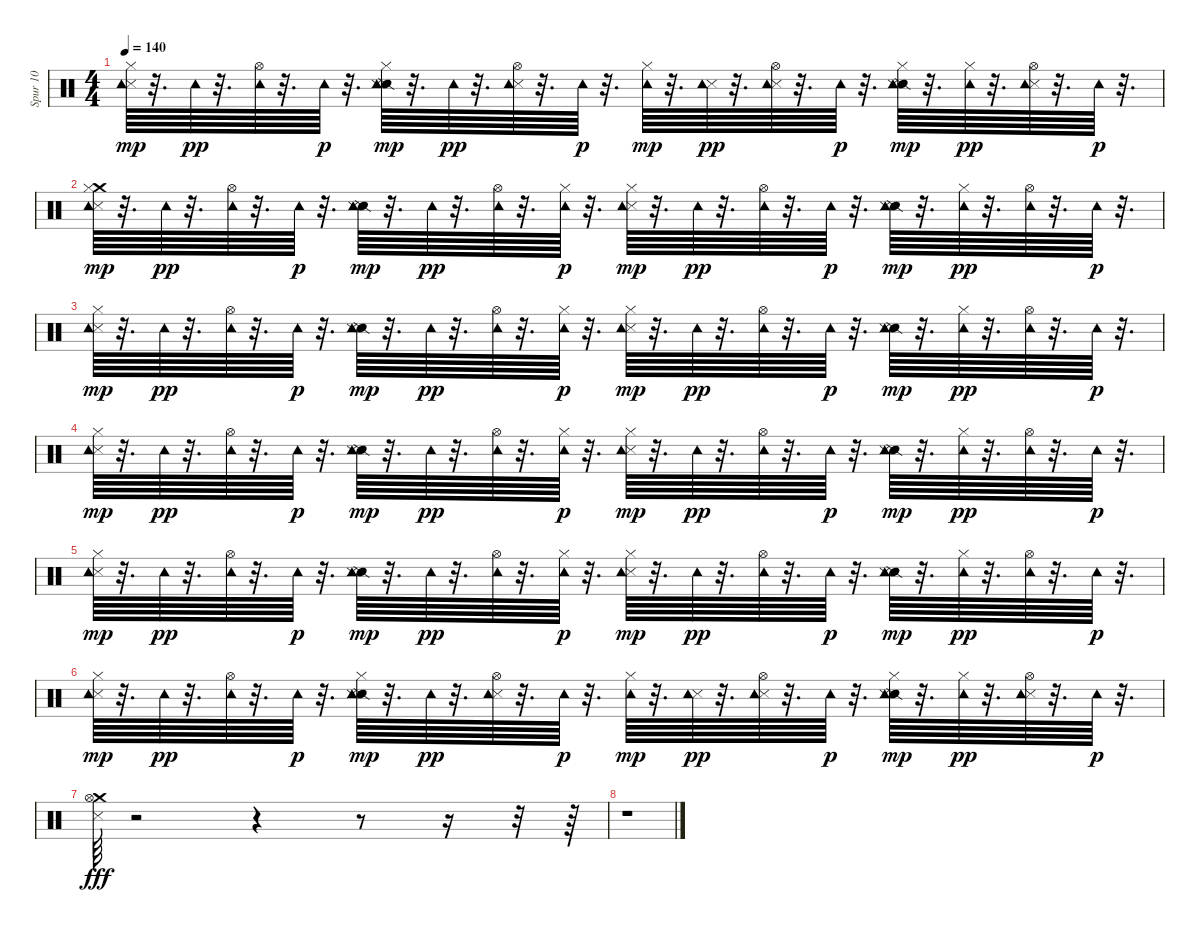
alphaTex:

\track ("Spur 10" "Spur 10") {instrument percussion}
\staff {score}
\articulation defaults
\ts (4 4)
\tempo 140
\clef neutral
\ks c
("Metronome (hit)" "Hi-Hat (closed)" "Tambourine (hit)").64{dy mp} r.32{d} "Tambourine (hit)".64{dy pp} r.32{d} ("Hi-Hat (open)" "Tambourine (hit)").64 r.32{d} "Tambourine (hit)".64{dy p} r.32{d} ("Snare (side stick) 2" "Metronome (hit)" "Hi-Hat (closed)" "Tambourine (hit)").64{dy mp} r.32{d} "Tambourine (hit)".64{dy pp} r.32{d} ("Metronome (hit)" "Hi-Hat (open)" "Tambourine (hit)").64 r.32{d} "Tambourine (hit)".64{dy p} r.32{d} ("Hi-Hat (closed)" "Tambourine (hit)").64{dy mp} r.32{d} ("Metronome (hit)" "Tambourine (hit)").64{dy pp} r.32{d} ("Metronome (hit)" "Hi-Hat (open)" "Tambourine (hit)").64 r.32{d} "Tambourine (hit)".64{dy p} r.32{d} ("Snare (side stick) 2" "Metronome (hit)" "Hi-Hat (closed)" "Tambourine (hit)").64{dy mp} r.32{d} ("Hi-Hat (closed)" "Tambourine (hit)").64{dy pp} r.32{d} ("Metronome (hit)" "Hi-Hat (open)" "Tambourine (hit)").64 r.32{d} "Tambourine (hit)".64{dy p} r.32{d} |
("Crash medium (hit)" "Metronome (hit)" "Hi-Hat (closed)" "Tambourine (hit)").64{dy mp} r.32{d} "Tambourine (hit)".64{dy pp} r.32{d} ("Hi-Hat (open)" "Tambourine (hit)").64 r.32{d} "Tambourine (hit)".64{dy p} r.32{d} ("Snare (side stick) 2" "Metronome (hit)" "Tambourine (hit)").64{dy mp} r.32{d} "Tambourine (hit)".64{dy pp} r.32{d} ("Hi-Hat (open)" "Tambourine (hit)").64 r.32{d} ("Hi-Hat (closed)" "Tambourine (hit)").64{dy p} r.32{d} ("Metronome (hit)" "Hi-Hat (closed)" "Tambourine (hit)").64{dy mp} r.32{d} "Tambourine (hit)".64{dy pp} r.32{d} ("Hi-Hat (open)" "Tambourine (hit)").64 r.32{d} "Tambourine (hit)".64{dy p} r.32{d} ("Snare (side stick) 2" "Metronome (hit)" "Tambourine (hit)").64{dy mp} r.32{d} ("Hi-Hat (closed)" "Tambourine (hit)").64{dy pp} r.32{d} ("Hi-Hat (open)" "Tambourine (hit)").64 r.32{d} "Tambourine (hit)".64{dy p} r.32{d} |
("Metronome (hit)" "Hi-Hat (closed)" "Tambourine (hit)").64{dy mp} r.32{d} "Tambourine (hit)".64{dy pp} r.32{d} ("Hi-Hat (open)" "Tambourine (hit)").64 r.32{d} "Tambourine (hit)".64{dy p} r.32{d} ("Snare (side stick) 2" "Metronome (hit)" "Tambourine (hit)").64{dy mp} r.32{d} "Tambourine (hit)".64{dy pp} r.32{d} ("Hi-Hat (open)" "Tambourine (hit)").64 r.32{d} ("Hi-Hat (closed)" "Tambourine (hit)").64{dy p} r.32{d} ("Metronome (hit)" "Hi-Hat (closed)" "Tambourine (hit)").64{dy mp} r.32{d} "Tambourine (hit)".64{dy pp} r.32{d} ("Hi-Hat (open)" "Tambourine (hit)").64 r.32{d} "Tambourine (hit)".64{dy p} r.32{d} ("Snare (side stick) 2" "Metronome (hit)" "Tambourine (hit)").64{dy mp} r.32{d} ("Hi-Hat (closed)" "Tambourine (hit)").64{dy pp} r.32{d} ("Hi-Hat (open)" "Tambourine (hit)").64 r.32{d} "Tambourine (hit)".64{dy p} r.32{d} |
("Metronome (hit)" "Hi-Hat (closed)" "Tambourine (hit)").64{dy mp} r.32{d} "Tambourine (hit)".64{dy pp} r.32{d} ("Hi-Hat (open)" "Tambourine (hit)").64 r.32{d} "Tambourine (hit)".64{dy p} r.32{d} ("Snare (side stick) 2" "Metronome (hit)" "Tambourine (hit)").64{dy mp} r.32{d} "Tambourine (hit)".64{dy pp} r.32{d} ("Hi-Hat (open)" "Tambourine (hit)").64 r.32{d} ("Hi-Hat (closed)" "Tambourine (hit)").64{dy p} r.32{d} ("Metronome (hit)" "Hi-Hat (closed)" "Tambourine (hit)").64{dy mp} r.32{d} "Tambourine (hit)".64{dy pp} r.32{d} ("Hi-Hat (open)" "Tambourine (hit)").64 r.32{d} "Tambourine (hit)".64{dy p} r.32{d} ("Snare (side stick) 2" "Metronome (hit)" "Tambourine (hit)").64{dy mp} r.32{d} ("Hi-Hat (closed)" "Tambourine (hit)").64{dy pp} r.32{d} ("Hi-Hat (open)" "Tambourine (hit)").64 r.32{d} "Tambourine (hit)".64{dy p} r.32{d} |
("Metronome (hit)" "Hi-Hat (closed)" "Tambourine (hit)").64{dy mp} r.32{d} "Tambourine (hit)".64{dy pp} r.32{d} ("Hi-Hat (open)" "Tambourine (hit)").64 r.32{d} "Tambourine (hit)".64{dy p} r.32{d} ("Snare (side stick) 2" "Metronome (hit)" "Tambourine (hit)").64{dy mp} r.32{d} "Tambourine (hit)".64{dy pp} r.32{d} ("Hi-Hat (open)" "Tambourine (hit)").64 r.32{d} ("Hi-Hat (closed)" "Tambourine (hit)").64{dy p} r.32{d} ("Metronome (hit)" "Hi-Hat (closed)" "Tambourine (hit)").64{dy mp} r.32{d} "Tambourine (hit)".64{dy pp} r.32{d} ("Hi-Hat (open)" "Tambourine (hit)").64 r.32{d} "Tambourine (hit)".64{dy p} r.32{d} ("Snare (side stick) 2" "Metronome (hit)" "Tambourine (hit)").64{dy mp} r.32{d} ("Hi-Hat (closed)" "Tambourine (hit)").64{dy pp} r.32{d} ("Hi-Hat (open)" "Tambourine (hit)").64 r.32{d} "Tambourine (hit)".64{dy p} r.32{d} |
("Metronome (hit)" "Hi-Hat (closed)" "Tambourine (hit)").64{dy mp} r.32{d} "Tambourine (hit)".64{dy pp} r.32{d} ("Hi-Hat (open)" "Tambourine (hit)").64 r.32{d} "Tambourine (hit)".64{dy p} r.32{d} ("Snare (side stick) 2" "Metronome (hit)" "Hi-Hat (closed)" "Tambourine (hit)").64{dy mp} r.32{d} "Tambourine (hit)".64{dy pp} r.32{d} ("Metronome (hit)" "Hi-Hat (open)" "Tambourine (hit)").64 r.32{d} "Tambourine (hit)".64{dy p} r.32{d} ("Hi-Hat (closed)" "Tambourine (hit)").64{dy mp} r.32{d} ("Metronome (hit)" "Tambourine (hit)").64{dy pp} r.32{d} ("Metronome (hit)" "Hi-Hat (open)" "Tambourine (hit)").64 r.32{d} "Tambourine (hit)".64{dy p} r.32{d} ("Snare (side stick) 2" "Metronome (hit)" "Hi-Hat (closed)" "Tambourine (hit)").64{dy mp} r.32{d} ("Hi-Hat (closed)" "Tambourine (hit)").64{dy pp} r.32{d} ("Metronome (hit)" "Hi-Hat (open)" "Tambourine (hit)").64 r.32{d} "Tambourine (hit)".64{dy p} r.32{d} |
("Crash medium (hit)" "Metronome (hit)" "Hi-Hat (open)").64{dy fff} r.2 r.4 r.8 r.16 r.32 r.64 |
r.1
